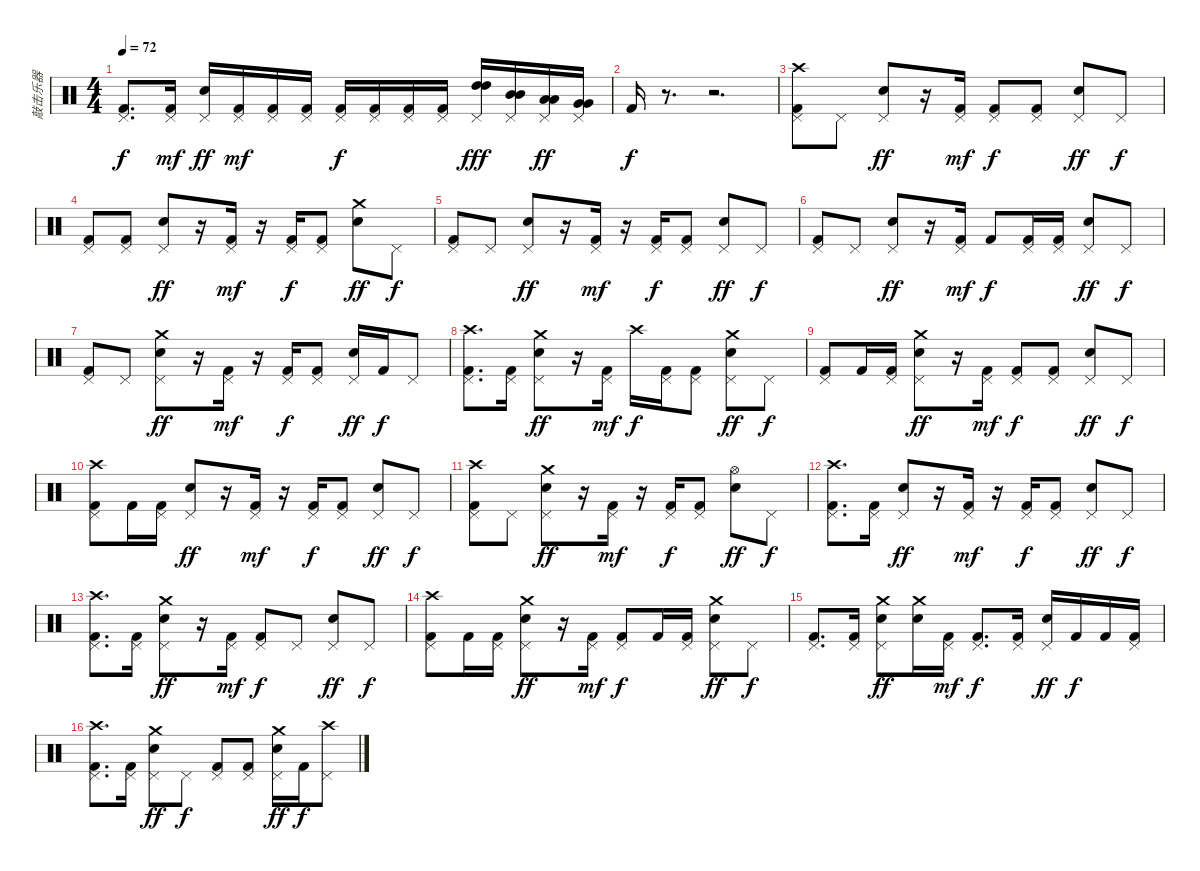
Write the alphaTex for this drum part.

\track ("敲击乐器" "敲击乐器") {instrument percussion}
\staff {score}
\articulation defaults
\ts (4 4)
\tempo 72
\clef neutral
\ks c
("Pedal Hi-Hat (hit)" "Kick (hit) 2").8{d dy f} ("Pedal Hi-Hat (hit)" "Kick (hit) 2").16{dy mf} ("Pedal Hi-Hat (hit)" "Electric Snare (hit)").16{dy ff} ("Pedal Hi-Hat (hit)" "Kick (hit) 2").16{dy mf} ("Pedal Hi-Hat (hit)" "Kick (hit) 2").16 ("Pedal Hi-Hat (hit)" "Kick (hit) 2").16 ("Pedal Hi-Hat (hit)" "Kick (hit) 2").16{dy f} ("Pedal Hi-Hat (hit)" "Kick (hit) 2").16 ("Pedal Hi-Hat (hit)" "Kick (hit) 2").16 ("Pedal Hi-Hat (hit)" "Kick (hit) 2").16 ("Pedal Hi-Hat (hit)" "High Tom (hit)" "High Tom (hit)").16{dy fff} ("Pedal Hi-Hat (hit)" "Mid Tom (hit)" "Mid Tom (hit)").16 ("Pedal Hi-Hat (hit)" "Low Tom (hit)" "Low Tom (hit)").16{dy ff} ("Pedal Hi-Hat (hit)" "Very Low Tom (hit)" "Very Low Tom (hit)").16 |
"Kick (hit) 2".16{dy f} r.8{d} r.2{d} |
("Pedal Hi-Hat (hit)" "Kick (hit) 2" "Crash high (hit)").8 "Pedal Hi-Hat (hit)".8 ("Pedal Hi-Hat (hit)" "Electric Snare (hit)").8{dy ff} r.16 ("Pedal Hi-Hat (hit)" "Kick (hit) 2").16{dy mf} ("Pedal Hi-Hat (hit)" "Kick (hit) 2").8{dy f} ("Pedal Hi-Hat (hit)" "Kick (hit) 2").8 ("Pedal Hi-Hat (hit)" "Electric Snare (hit)").8{dy ff} "Pedal Hi-Hat (hit)".8{dy f} |
("Pedal Hi-Hat (hit)" "Kick (hit) 2").8 ("Pedal Hi-Hat (hit)" "Kick (hit) 2").8 ("Pedal Hi-Hat (hit)" "Electric Snare (hit)").8{dy ff} r.16 ("Pedal Hi-Hat (hit)" "Kick (hit) 2").16{dy mf} r.16 ("Pedal Hi-Hat (hit)" "Kick (hit) 2").16{dy f} ("Pedal Hi-Hat (hit)" "Kick (hit) 2").8 ("Electric Snare (hit)" "Crash medium (hit)").8{dy ff} "Pedal Hi-Hat (hit)".8{dy f} |
("Pedal Hi-Hat (hit)" "Kick (hit) 2").8 "Pedal Hi-Hat (hit)".8 ("Pedal Hi-Hat (hit)" "Electric Snare (hit)").8{dy ff} r.16 ("Pedal Hi-Hat (hit)" "Kick (hit) 2").16{dy mf} r.16 ("Pedal Hi-Hat (hit)" "Kick (hit) 2").16{dy f} ("Pedal Hi-Hat (hit)" "Kick (hit) 2").8 ("Pedal Hi-Hat (hit)" "Electric Snare (hit)").8{dy ff} "Pedal Hi-Hat (hit)".8{dy f} |
("Pedal Hi-Hat (hit)" "Kick (hit) 2").8 "Pedal Hi-Hat (hit)".8 ("Pedal Hi-Hat (hit)" "Electric Snare (hit)").8{dy ff} r.16 ("Pedal Hi-Hat (hit)" "Kick (hit) 2").16{dy mf} "Kick (hit) 2".8{dy f} ("Pedal Hi-Hat (hit)" "Kick (hit) 2").16 ("Pedal Hi-Hat (hit)" "Kick (hit) 2").16 ("Pedal Hi-Hat (hit)" "Electric Snare (hit)").8{dy ff} "Pedal Hi-Hat (hit)".8{dy f} |
("Pedal Hi-Hat (hit)" "Kick (hit) 2").8 "Pedal Hi-Hat (hit)".8 ("Pedal Hi-Hat (hit)" "Electric Snare (hit)" "Crash medium (hit)").8{dy ff} r.16 ("Pedal Hi-Hat (hit)" "Kick (hit) 2").16{dy mf} r.16 ("Pedal Hi-Hat (hit)" "Kick (hit) 2").16{dy f} ("Pedal Hi-Hat (hit)" "Kick (hit) 2").8 ("Pedal Hi-Hat (hit)" "Electric Snare (hit)").16{dy ff} "Kick (hit) 2".16{dy f} "Pedal Hi-Hat (hit)".8 |
("Pedal Hi-Hat (hit)" "Kick (hit) 2" "Crash high (hit)").8{d} ("Pedal Hi-Hat (hit)" "Kick (hit) 2").16 ("Pedal Hi-Hat (hit)" "Electric Snare (hit)" "Crash medium (hit)").8{dy ff} r.16 ("Pedal Hi-Hat (hit)" "Kick (hit) 2").16{dy mf} "Crash high (hit)".16{dy f} ("Pedal Hi-Hat (hit)" "Kick (hit) 2").16 ("Pedal Hi-Hat (hit)" "Kick (hit) 2").8 ("Pedal Hi-Hat (hit)" "Electric Snare (hit)" "Crash medium (hit)").8{dy ff} "Pedal Hi-Hat (hit)".8{dy f} |
("Pedal Hi-Hat (hit)" "Kick (hit) 2").8 "Kick (hit) 2".16 ("Pedal Hi-Hat (hit)" "Kick (hit) 2").16 ("Pedal Hi-Hat (hit)" "Electric Snare (hit)" "Crash medium (hit)").8{dy ff} r.16 ("Pedal Hi-Hat (hit)" "Kick (hit) 2").16{dy mf} ("Pedal Hi-Hat (hit)" "Kick (hit) 2").8{dy f} ("Pedal Hi-Hat (hit)" "Kick (hit) 2").8 ("Pedal Hi-Hat (hit)" "Electric Snare (hit)").8{dy ff} "Pedal Hi-Hat (hit)".8{dy f} |
("Pedal Hi-Hat (hit)" "Kick (hit) 2" "Crash high (hit)").8 "Kick (hit) 2".16 ("Pedal Hi-Hat (hit)" "Kick (hit) 2").16 ("Pedal Hi-Hat (hit)" "Electric Snare (hit)").8{dy ff} r.16 ("Pedal Hi-Hat (hit)" "Kick (hit) 2").16{dy mf} r.16 ("Pedal Hi-Hat (hit)" "Kick (hit) 2").16{dy f} ("Pedal Hi-Hat (hit)" "Kick (hit) 2").8 ("Pedal Hi-Hat (hit)" "Electric Snare (hit)").8{dy ff} "Pedal Hi-Hat (hit)".8{dy f} |
("Pedal Hi-Hat (hit)" "Kick (hit) 2" "Crash high (hit)").8 "Pedal Hi-Hat (hit)".8 ("Pedal Hi-Hat (hit)" "Electric Snare (hit)" "Crash medium (hit)").8{dy ff} r.16 ("Pedal Hi-Hat (hit)" "Kick (hit) 2").16{dy mf} r.16 ("Pedal Hi-Hat (hit)" "Kick (hit) 2").16{dy f} ("Pedal Hi-Hat (hit)" "Kick (hit) 2").8 ("Hi-Hat (open)" "Electric Snare (hit)").8{dy ff} "Pedal Hi-Hat (hit)".8{dy f} |
("Pedal Hi-Hat (hit)" "Kick (hit) 2" "Crash high (hit)").8{d} ("Pedal Hi-Hat (hit)" "Kick (hit) 2").16 ("Pedal Hi-Hat (hit)" "Electric Snare (hit)").8{dy ff} r.16 ("Pedal Hi-Hat (hit)" "Kick (hit) 2").16{dy mf} r.16 ("Pedal Hi-Hat (hit)" "Kick (hit) 2").16{dy f} ("Pedal Hi-Hat (hit)" "Kick (hit) 2").8 ("Pedal Hi-Hat (hit)" "Electric Snare (hit)").8{dy ff} "Pedal Hi-Hat (hit)".8{dy f} |
("Pedal Hi-Hat (hit)" "Kick (hit) 2" "Crash high (hit)").8{d} ("Pedal Hi-Hat (hit)" "Kick (hit) 2").16 ("Pedal Hi-Hat (hit)" "Electric Snare (hit)" "Crash medium (hit)").8{dy ff} r.16 ("Pedal Hi-Hat (hit)" "Kick (hit) 2").16{dy mf} ("Pedal Hi-Hat (hit)" "Kick (hit) 2").8{dy f} "Pedal Hi-Hat (hit)".8 ("Pedal Hi-Hat (hit)" "Electric Snare (hit)").8{dy ff} "Pedal Hi-Hat (hit)".8{dy f} |
("Pedal Hi-Hat (hit)" "Kick (hit) 2" "Crash high (hit)").8 "Kick (hit) 2".16 ("Pedal Hi-Hat (hit)" "Kick (hit) 2").16 ("Pedal Hi-Hat (hit)" "Electric Snare (hit)" "Crash medium (hit)").8{dy ff} r.16 ("Pedal Hi-Hat (hit)" "Kick (hit) 2").16{dy mf} ("Pedal Hi-Hat (hit)" "Kick (hit) 2").8{dy f} "Kick (hit) 2".16 ("Pedal Hi-Hat (hit)" "Kick (hit) 2").16 ("Pedal Hi-Hat (hit)" "Electric Snare (hit)" "Crash medium (hit)").8{dy ff} "Pedal Hi-Hat (hit)".8{dy f} |
("Pedal Hi-Hat (hit)" "Kick (hit) 2").8{d} ("Pedal Hi-Hat (hit)" "Kick (hit) 2").16 ("Pedal Hi-Hat (hit)" "Electric Snare (hit)" "Crash medium (hit)").8{dy ff} ("Electric Snare (hit)" "Crash medium (hit)").16 ("Pedal Hi-Hat (hit)" "Kick (hit) 2").16{dy mf} ("Pedal Hi-Hat (hit)" "Kick (hit) 2").8{d dy f} ("Pedal Hi-Hat (hit)" "Kick (hit) 2").16 ("Pedal Hi-Hat (hit)" "Electric Snare (hit)").16{dy ff} "Kick (hit) 2".16{dy f} "Kick (hit) 2".16 ("Pedal Hi-Hat (hit)" "Kick (hit) 2").16 |
("Pedal Hi-Hat (hit)" "Kick (hit) 2" "Crash high (hit)").8{d} ("Pedal Hi-Hat (hit)" "Kick (hit) 2").16 ("Pedal Hi-Hat (hit)" "Electric Snare (hit)" "Crash medium (hit)").8{dy ff} "Pedal Hi-Hat (hit)".8{dy f} ("Pedal Hi-Hat (hit)" "Kick (hit) 2").8 ("Pedal Hi-Hat (hit)" "Kick (hit) 2").8 ("Pedal Hi-Hat (hit)" "Electric Snare (hit)" "Crash medium (hit)").16{dy ff} "Kick (hit) 2".16{dy f} ("Pedal Hi-Hat (hit)" "Crash high (hit)").8
